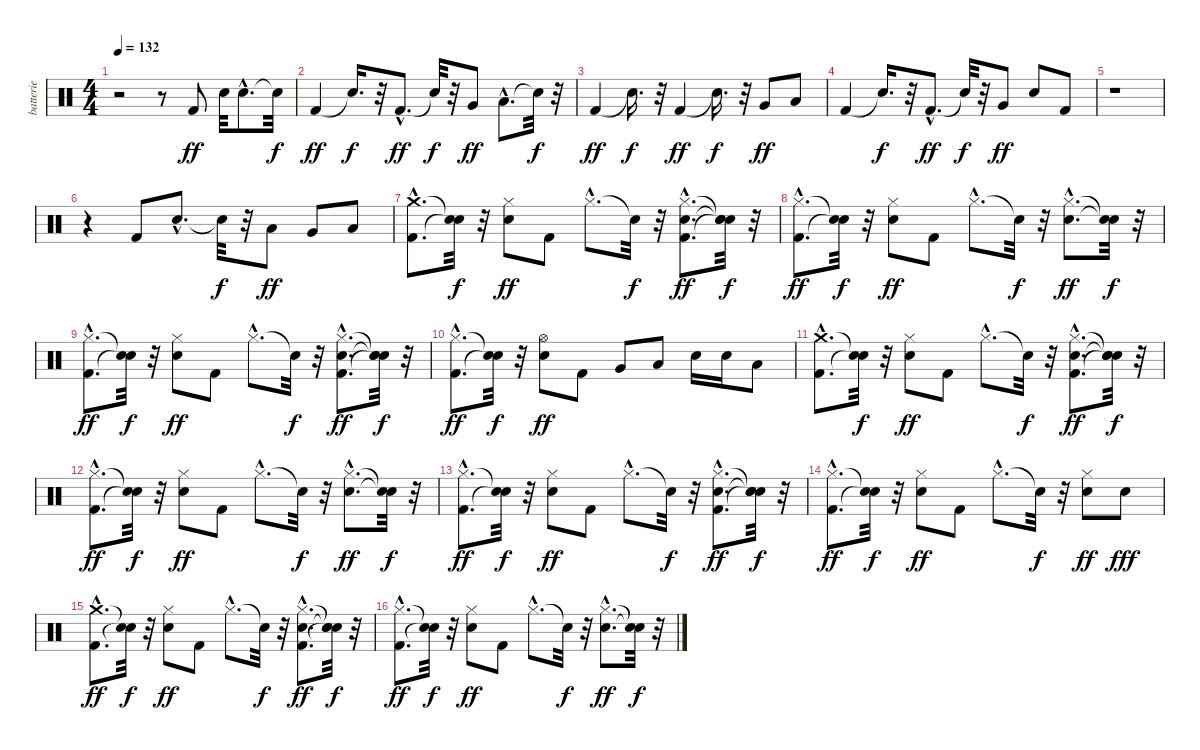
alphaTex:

\track ("batterie" "batterie") {instrument percussion}
\staff {score}
\articulation defaults
\ts (4 4)
\tempo 132
\clef neutral
\ks c
r.2{dy ff} r.8 "Kick (hit) 2".8 "Electric Snare (hit)".32 "Electric Snare (hit)"{hac}.8{d} "Snare (hit)"{t}.32{dy f} |
"Kick (hit) 2".4{dy ff} "Snare (hit)"{t}.16{d dy f} r.32 "Kick (hit) 2"{hac}.8{d dy ff} "Snare (hit)"{t}.32{dy f} r.32 "Very Low Tom (hit)".8{dy ff} "Low Floor Tom (hit)"{hac}.8{d} "Snare (hit)"{t}.32{dy f} r.32 |
"Kick (hit) 2".4{dy ff} "Snare (hit)"{t}.16{d dy f} r.32 "Kick (hit) 2".4{dy ff} "Snare (hit)"{t}.16{d dy f} r.32 "Very Low Tom (hit)".8{dy ff} "Low Floor Tom (hit)".8 |
"Kick (hit) 2".4 "Snare (hit)"{t}.16{d dy f} r.32 "Kick (hit) 2"{hac}.8{d dy ff} "Snare (hit)"{t}.32{dy f} r.32 "Very Low Tom (hit)".8{dy ff} "Electric Snare (hit)".8 "Kick (hit) 2".8 |
r.1 |
r.4 "Kick (hit) 2".8 "Electric Snare (hit)"{hac}.8{d} "Snare (hit)"{t}.32{dy f} r.32 "Low Tom (hit)".8{dy ff} "Very Low Tom (hit)".8 "Low Floor Tom (hit)".8 |
("Kick (hit) 2"{hac} "Crash medium (hit)"{hac}).8{d} ("Snare (hit)"{t} "Snare (hit)"{t}).32{dy f} r.32 ("Electric Snare (hit)" "Hi-Hat (closed)").8{dy ff} "Kick (hit) 2".8 "Hi-Hat (closed)"{hac}.8{d} "Snare (hit)"{t}.32{dy f} r.32 ("Kick (hit) 2"{hac} "Electric Snare (hit)"{hac} "Hi-Hat (closed)"{hac}).8{d dy ff} ("Snare (hit)"{t} "Snare (hit)"{t} "Snare (hit)"{t}).32{dy f} r.32 |
("Kick (hit) 2"{hac} "Hi-Hat (closed)"{hac}).8{d dy ff} ("Snare (hit)"{t} "Snare (hit)"{t}).32{dy f} r.32 ("Electric Snare (hit)" "Hi-Hat (closed)").8{dy ff} "Kick (hit) 2".8 "Hi-Hat (closed)"{hac}.8{d} "Snare (hit)"{t}.32{dy f} r.32 ("Electric Snare (hit)"{hac} "Hi-Hat (closed)"{hac}).8{d dy ff} ("Snare (hit)"{t} "Snare (hit)"{t}).32{dy f} r.32 |
("Kick (hit) 2"{hac} "Hi-Hat (closed)"{hac}).8{d dy ff} ("Snare (hit)"{t} "Snare (hit)"{t}).32{dy f} r.32 ("Electric Snare (hit)" "Hi-Hat (closed)").8{dy ff} "Kick (hit) 2".8 "Hi-Hat (closed)"{hac}.8{d} "Snare (hit)"{t}.32{dy f} r.32 ("Kick (hit) 2"{hac} "Electric Snare (hit)"{hac} "Hi-Hat (closed)"{hac}).8{d dy ff} ("Snare (hit)"{t} "Snare (hit)"{t} "Snare (hit)"{t}).32{dy f} r.32 |
("Kick (hit) 2"{hac} "Hi-Hat (closed)"{hac}).8{d dy ff} ("Snare (hit)"{t} "Snare (hit)"{t}).32{dy f} r.32 ("Electric Snare (hit)" "Hi-Hat (open)").8{dy ff} "Kick (hit) 2".8 "Very Low Tom (hit)".8 "Low Floor Tom (hit)".8 "Electric Snare (hit)".16 "Electric Snare (hit)".16 "Low Floor Tom (hit)".8 |
("Kick (hit) 2"{hac} "Crash medium (hit)"{hac}).8{d} ("Snare (hit)"{t} "Snare (hit)"{t}).32{dy f} r.32 ("Electric Snare (hit)" "Hi-Hat (closed)").8{dy ff} "Kick (hit) 2".8 "Hi-Hat (closed)"{hac}.8{d} "Snare (hit)"{t}.32{dy f} r.32 ("Kick (hit) 2"{hac} "Electric Snare (hit)"{hac} "Hi-Hat (closed)"{hac}).8{d dy ff} ("Snare (hit)"{t} "Snare (hit)"{t} "Snare (hit)"{t}).32{dy f} r.32 |
("Kick (hit) 2"{hac} "Hi-Hat (closed)"{hac}).8{d dy ff} ("Snare (hit)"{t} "Snare (hit)"{t}).32{dy f} r.32 ("Electric Snare (hit)" "Hi-Hat (closed)").8{dy ff} "Kick (hit) 2".8 "Hi-Hat (closed)"{hac}.8{d} "Snare (hit)"{t}.32{dy f} r.32 ("Electric Snare (hit)"{hac} "Hi-Hat (closed)"{hac}).8{d dy ff} ("Snare (hit)"{t} "Snare (hit)"{t}).32{dy f} r.32 |
("Kick (hit) 2"{hac} "Hi-Hat (closed)"{hac}).8{d dy ff} ("Snare (hit)"{t} "Snare (hit)"{t}).32{dy f} r.32 ("Electric Snare (hit)" "Hi-Hat (closed)").8{dy ff} "Kick (hit) 2".8 "Hi-Hat (closed)"{hac}.8{d} "Snare (hit)"{t}.32{dy f} r.32 ("Kick (hit) 2"{hac} "Electric Snare (hit)"{hac} "Hi-Hat (closed)"{hac}).8{d dy ff} ("Snare (hit)"{t} "Snare (hit)"{t} "Snare (hit)"{t}).32{dy f} r.32 |
("Kick (hit) 2"{hac} "Hi-Hat (closed)"{hac}).8{d dy ff} ("Snare (hit)"{t} "Snare (hit)"{t}).32{dy f} r.32 ("Electric Snare (hit)" "Hi-Hat (closed)").8{dy ff} "Kick (hit) 2".8 "Hi-Hat (closed)"{hac}.8{d} "Snare (hit)"{t}.32{dy f} r.32 ("Electric Snare (hit)" "Hi-Hat (closed)").8{dy ff} "Electric Snare (hit)".8{dy fff} |
("Kick (hit) 2"{hac} "Crash medium (hit)"{hac}).8{d dy ff} ("Snare (hit)"{t} "Snare (hit)"{t}).32{dy f} r.32 ("Electric Snare (hit)" "Hi-Hat (closed)").8{dy ff} "Kick (hit) 2".8 "Hi-Hat (closed)"{hac}.8{d} "Snare (hit)"{t}.32{dy f} r.32 ("Kick (hit) 2"{hac} "Electric Snare (hit)"{hac} "Hi-Hat (closed)"{hac}).8{d dy ff} ("Snare (hit)"{t} "Snare (hit)"{t} "Snare (hit)"{t}).32{dy f} r.32 |
("Kick (hit) 2"{hac} "Hi-Hat (closed)"{hac}).8{d dy ff} ("Snare (hit)"{t} "Snare (hit)"{t}).32{dy f} r.32 ("Electric Snare (hit)" "Hi-Hat (closed)").8{dy ff} "Kick (hit) 2".8 "Hi-Hat (closed)"{hac}.8{d} "Snare (hit)"{t}.32{dy f} r.32 ("Electric Snare (hit)"{hac} "Hi-Hat (closed)"{hac}).8{d dy ff} ("Snare (hit)"{t} "Snare (hit)"{t}).32{dy f} r.32
